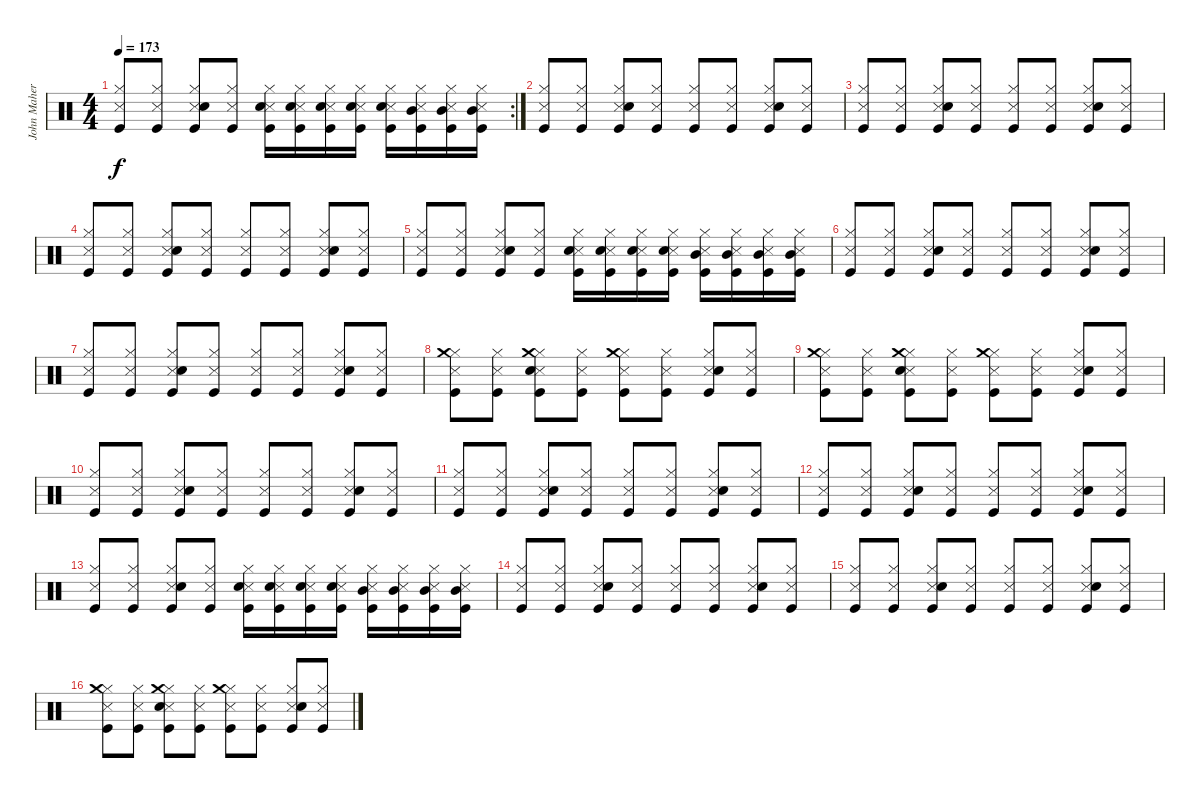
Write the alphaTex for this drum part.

\track ("John Maher" "John Maher") {instrument percussion}
\staff {score}
\articulation defaults
\rc 2
\ts (4 4)
\tempo 173
\clef neutral
\ks c
("Snare (side stick) 3" "Hi-Hat (closed)" "Kick (hit)").8{dy f} ("Snare (side stick) 3" "Hi-Hat (closed)" "Kick (hit)").8 ("Snare (side stick) 3" "Hi-Hat (closed)" "Snare (hit) 2" "Kick (hit)").8 ("Snare (side stick) 3" "Hi-Hat (closed)" "Kick (hit)").8 ("Snare (side stick) 3" "Hi-Hat (closed)" "Snare (hit) 2" "Kick (hit)").16 ("Snare (side stick) 3" "Hi-Hat (closed)" "Snare (hit) 2" "Kick (hit)").16 ("Snare (side stick) 3" "Hi-Hat (closed)" "Snare (hit) 2" "Kick (hit)").16 ("Snare (side stick) 3" "Hi-Hat (closed)" "Snare (hit) 2" "Kick (hit)").16 ("Snare (side stick) 3" "Hi-Hat (closed)" "Snare (hit)" "Kick (hit)").16 ("Snare (side stick) 3" "Hi-Hat (closed)" "Mid Tom (hit)" "Kick (hit)").16 ("Snare (side stick) 3" "Hi-Hat (closed)" "Mid Tom (hit)" "Kick (hit)").16 ("Snare (side stick) 3" "Hi-Hat (closed)" "Mid Tom (hit)" "Kick (hit)").16 |
("Snare (side stick) 3" "Hi-Hat (closed)" "Kick (hit)").8 ("Snare (side stick) 3" "Hi-Hat (closed)" "Kick (hit)").8 ("Snare (side stick) 3" "Hi-Hat (closed)" "Snare (hit) 2" "Kick (hit)").8 ("Snare (side stick) 3" "Hi-Hat (closed)" "Kick (hit)").8 ("Snare (side stick) 3" "Hi-Hat (closed)" "Kick (hit)").8 ("Snare (side stick) 3" "Hi-Hat (closed)" "Kick (hit)").8 ("Snare (side stick) 3" "Hi-Hat (closed)" "Snare (hit) 2" "Kick (hit)").8 ("Snare (side stick) 3" "Hi-Hat (closed)" "Kick (hit)").8 |
("Snare (side stick) 3" "Hi-Hat (closed)" "Kick (hit)").8 ("Snare (side stick) 3" "Hi-Hat (closed)" "Kick (hit)").8 ("Snare (side stick) 3" "Hi-Hat (closed)" "Snare (hit) 2" "Kick (hit)").8 ("Snare (side stick) 3" "Hi-Hat (closed)" "Kick (hit)").8 ("Snare (side stick) 3" "Hi-Hat (closed)" "Kick (hit)").8 ("Snare (side stick) 3" "Hi-Hat (closed)" "Kick (hit)").8 ("Snare (side stick) 3" "Hi-Hat (closed)" "Snare (hit) 2" "Kick (hit)").8 ("Snare (side stick) 3" "Hi-Hat (closed)" "Kick (hit)").8 |
("Snare (side stick) 3" "Hi-Hat (closed)" "Kick (hit)").8 ("Snare (side stick) 3" "Hi-Hat (closed)" "Kick (hit)").8 ("Snare (side stick) 3" "Hi-Hat (closed)" "Snare (hit) 2" "Kick (hit)").8 ("Snare (side stick) 3" "Hi-Hat (closed)" "Kick (hit)").8 ("Snare (side stick) 3" "Hi-Hat (closed)" "Kick (hit)").8 ("Snare (side stick) 3" "Hi-Hat (closed)" "Kick (hit)").8 ("Snare (side stick) 3" "Hi-Hat (closed)" "Snare (hit) 2" "Kick (hit)").8 ("Snare (side stick) 3" "Hi-Hat (closed)" "Kick (hit)").8 |
("Snare (side stick) 3" "Hi-Hat (closed)" "Kick (hit)").8 ("Snare (side stick) 3" "Hi-Hat (closed)" "Kick (hit)").8 ("Snare (side stick) 3" "Hi-Hat (closed)" "Snare (hit) 2" "Kick (hit)").8 ("Snare (side stick) 3" "Hi-Hat (closed)" "Kick (hit)").8 ("Snare (side stick) 3" "Hi-Hat (closed)" "Snare (hit) 2" "Kick (hit)").16 ("Snare (side stick) 3" "Hi-Hat (closed)" "Snare (hit) 2" "Kick (hit)").16 ("Snare (side stick) 3" "Hi-Hat (closed)" "Snare (hit) 2" "Kick (hit)").16 ("Snare (side stick) 3" "Hi-Hat (closed)" "Snare (hit) 2" "Kick (hit)").16 ("Snare (side stick) 3" "Hi-Hat (closed)" "Mid Tom (hit)" "Kick (hit)").16 ("Snare (side stick) 3" "Hi-Hat (closed)" "Mid Tom (hit)" "Kick (hit)").16 ("Snare (side stick) 3" "Hi-Hat (closed)" "Mid Tom (hit)" "Kick (hit)").16 ("Snare (side stick) 3" "Hi-Hat (closed)" "Mid Tom (hit)" "Kick (hit)").16 |
("Snare (side stick) 3" "Hi-Hat (closed)" "Kick (hit)").8 ("Snare (side stick) 3" "Hi-Hat (closed)" "Kick (hit)").8 ("Snare (side stick) 3" "Hi-Hat (closed)" "Snare (hit) 2" "Kick (hit)").8 ("Snare (side stick) 3" "Hi-Hat (closed)" "Kick (hit)").8 ("Snare (side stick) 3" "Hi-Hat (closed)" "Kick (hit)").8 ("Snare (side stick) 3" "Hi-Hat (closed)" "Kick (hit)").8 ("Snare (side stick) 3" "Hi-Hat (closed)" "Snare (hit) 2" "Kick (hit)").8 ("Snare (side stick) 3" "Hi-Hat (closed)" "Kick (hit)").8 |
("Snare (side stick) 3" "Hi-Hat (closed)" "Kick (hit)").8 ("Snare (side stick) 3" "Hi-Hat (closed)" "Kick (hit)").8 ("Snare (side stick) 3" "Hi-Hat (closed)" "Snare (hit) 2" "Kick (hit)").8 ("Snare (side stick) 3" "Hi-Hat (closed)" "Kick (hit)").8 ("Snare (side stick) 3" "Hi-Hat (closed)" "Kick (hit)").8 ("Snare (side stick) 3" "Hi-Hat (closed)" "Kick (hit)").8 ("Snare (side stick) 3" "Hi-Hat (closed)" "Snare (hit) 2" "Kick (hit)").8 ("Snare (side stick) 3" "Hi-Hat (closed)" "Kick (hit)").8 |
("Snare (side stick) 3" "Hi-Hat (closed)" "Crash medium (hit)" "Kick (hit)").8 ("Snare (side stick) 3" "Hi-Hat (closed)" "Kick (hit)").8 ("Snare (side stick) 3" "Hi-Hat (closed)" "Crash medium (hit)" "Snare (hit) 2" "Kick (hit)").8 ("Snare (side stick) 3" "Hi-Hat (closed)" "Kick (hit)").8 ("Snare (side stick) 3" "Hi-Hat (closed)" "Crash medium (hit)" "Kick (hit)").8 ("Snare (side stick) 3" "Hi-Hat (closed)" "Kick (hit)").8 ("Snare (side stick) 3" "Hi-Hat (closed)" "Snare (hit) 2" "Kick (hit)").8 ("Snare (side stick) 3" "Hi-Hat (closed)" "Kick (hit)").8 |
("Snare (side stick) 3" "Hi-Hat (closed)" "Crash medium (hit)" "Kick (hit)").8 ("Snare (side stick) 3" "Hi-Hat (closed)" "Kick (hit)").8 ("Snare (side stick) 3" "Hi-Hat (closed)" "Crash medium (hit)" "Snare (hit) 2" "Kick (hit)").8 ("Snare (side stick) 3" "Hi-Hat (closed)" "Kick (hit)").8 ("Snare (side stick) 3" "Hi-Hat (closed)" "Crash medium (hit)" "Kick (hit)").8 ("Snare (side stick) 3" "Hi-Hat (closed)" "Kick (hit)").8 ("Snare (side stick) 3" "Hi-Hat (closed)" "Snare (hit) 2" "Kick (hit)").8 ("Snare (side stick) 3" "Hi-Hat (closed)" "Kick (hit)").8 |
("Snare (side stick) 3" "Hi-Hat (closed)" "Kick (hit)").8 ("Snare (side stick) 3" "Hi-Hat (closed)" "Kick (hit)").8 ("Snare (side stick) 3" "Hi-Hat (closed)" "Snare (hit) 2" "Kick (hit)").8 ("Snare (side stick) 3" "Hi-Hat (closed)" "Kick (hit)").8 ("Snare (side stick) 3" "Hi-Hat (closed)" "Kick (hit)").8 ("Snare (side stick) 3" "Hi-Hat (closed)" "Kick (hit)").8 ("Snare (side stick) 3" "Hi-Hat (closed)" "Snare (hit) 2" "Kick (hit)").8 ("Snare (side stick) 3" "Hi-Hat (closed)" "Kick (hit)").8 |
("Snare (side stick) 3" "Hi-Hat (closed)" "Kick (hit)").8 ("Snare (side stick) 3" "Hi-Hat (closed)" "Kick (hit)").8 ("Snare (side stick) 3" "Hi-Hat (closed)" "Snare (hit) 2" "Kick (hit)").8 ("Snare (side stick) 3" "Hi-Hat (closed)" "Kick (hit)").8 ("Snare (side stick) 3" "Hi-Hat (closed)" "Kick (hit)").8 ("Snare (side stick) 3" "Hi-Hat (closed)" "Kick (hit)").8 ("Snare (side stick) 3" "Hi-Hat (closed)" "Snare (hit) 2" "Kick (hit)").8 ("Snare (side stick) 3" "Hi-Hat (closed)" "Kick (hit)").8 |
("Snare (side stick) 3" "Hi-Hat (closed)" "Kick (hit)").8 ("Snare (side stick) 3" "Hi-Hat (closed)" "Kick (hit)").8 ("Snare (side stick) 3" "Hi-Hat (closed)" "Snare (hit) 2" "Kick (hit)").8 ("Snare (side stick) 3" "Hi-Hat (closed)" "Kick (hit)").8 ("Snare (side stick) 3" "Hi-Hat (closed)" "Kick (hit)").8 ("Snare (side stick) 3" "Hi-Hat (closed)" "Kick (hit)").8 ("Snare (side stick) 3" "Hi-Hat (closed)" "Snare (hit) 2" "Kick (hit)").8 ("Snare (side stick) 3" "Hi-Hat (closed)" "Kick (hit)").8 |
("Snare (side stick) 3" "Hi-Hat (closed)" "Kick (hit)").8 ("Snare (side stick) 3" "Hi-Hat (closed)" "Kick (hit)").8 ("Snare (side stick) 3" "Hi-Hat (closed)" "Snare (hit) 2" "Kick (hit)").8 ("Snare (side stick) 3" "Hi-Hat (closed)" "Kick (hit)").8 ("Snare (side stick) 3" "Hi-Hat (closed)" "Snare (hit) 2" "Kick (hit)").16 ("Snare (side stick) 3" "Hi-Hat (closed)" "Snare (hit) 2" "Kick (hit)").16 ("Snare (side stick) 3" "Hi-Hat (closed)" "Snare (hit) 2" "Kick (hit)").16 ("Snare (side stick) 3" "Hi-Hat (closed)" "Snare (hit) 2" "Kick (hit)").16 ("Snare (side stick) 3" "Hi-Hat (closed)" "Mid Tom (hit)" "Kick (hit)").16 ("Snare (side stick) 3" "Hi-Hat (closed)" "Mid Tom (hit)" "Kick (hit)").16 ("Snare (side stick) 3" "Hi-Hat (closed)" "Mid Tom (hit)" "Kick (hit)").16 ("Snare (side stick) 3" "Hi-Hat (closed)" "Mid Tom (hit)" "Kick (hit)").16 |
("Snare (side stick) 3" "Hi-Hat (closed)" "Kick (hit)").8 ("Snare (side stick) 3" "Hi-Hat (closed)" "Kick (hit)").8 ("Snare (side stick) 3" "Hi-Hat (closed)" "Snare (hit) 2" "Kick (hit)").8 ("Snare (side stick) 3" "Hi-Hat (closed)" "Kick (hit)").8 ("Snare (side stick) 3" "Hi-Hat (closed)" "Kick (hit)").8 ("Snare (side stick) 3" "Hi-Hat (closed)" "Kick (hit)").8 ("Snare (side stick) 3" "Hi-Hat (closed)" "Snare (hit) 2" "Kick (hit)").8 ("Snare (side stick) 3" "Hi-Hat (closed)" "Kick (hit)").8 |
("Snare (side stick) 3" "Hi-Hat (closed)" "Kick (hit)").8 ("Snare (side stick) 3" "Hi-Hat (closed)" "Kick (hit)").8 ("Snare (side stick) 3" "Hi-Hat (closed)" "Snare (hit) 2" "Kick (hit)").8 ("Snare (side stick) 3" "Hi-Hat (closed)" "Kick (hit)").8 ("Snare (side stick) 3" "Hi-Hat (closed)" "Kick (hit)").8 ("Snare (side stick) 3" "Hi-Hat (closed)" "Kick (hit)").8 ("Snare (side stick) 3" "Hi-Hat (closed)" "Snare (hit) 2" "Kick (hit)").8 ("Snare (side stick) 3" "Hi-Hat (closed)" "Kick (hit)").8 |
("Snare (side stick) 3" "Hi-Hat (closed)" "Crash medium (hit)" "Kick (hit)").8 ("Snare (side stick) 3" "Hi-Hat (closed)" "Kick (hit)").8 ("Snare (side stick) 3" "Hi-Hat (closed)" "Crash medium (hit)" "Snare (hit) 2" "Kick (hit)").8 ("Snare (side stick) 3" "Hi-Hat (closed)" "Kick (hit)").8 ("Snare (side stick) 3" "Hi-Hat (closed)" "Crash medium (hit)" "Kick (hit)").8 ("Snare (side stick) 3" "Hi-Hat (closed)" "Kick (hit)").8 ("Snare (side stick) 3" "Hi-Hat (closed)" "Snare (hit) 2" "Kick (hit)").8 ("Snare (side stick) 3" "Hi-Hat (closed)" "Kick (hit)").8
